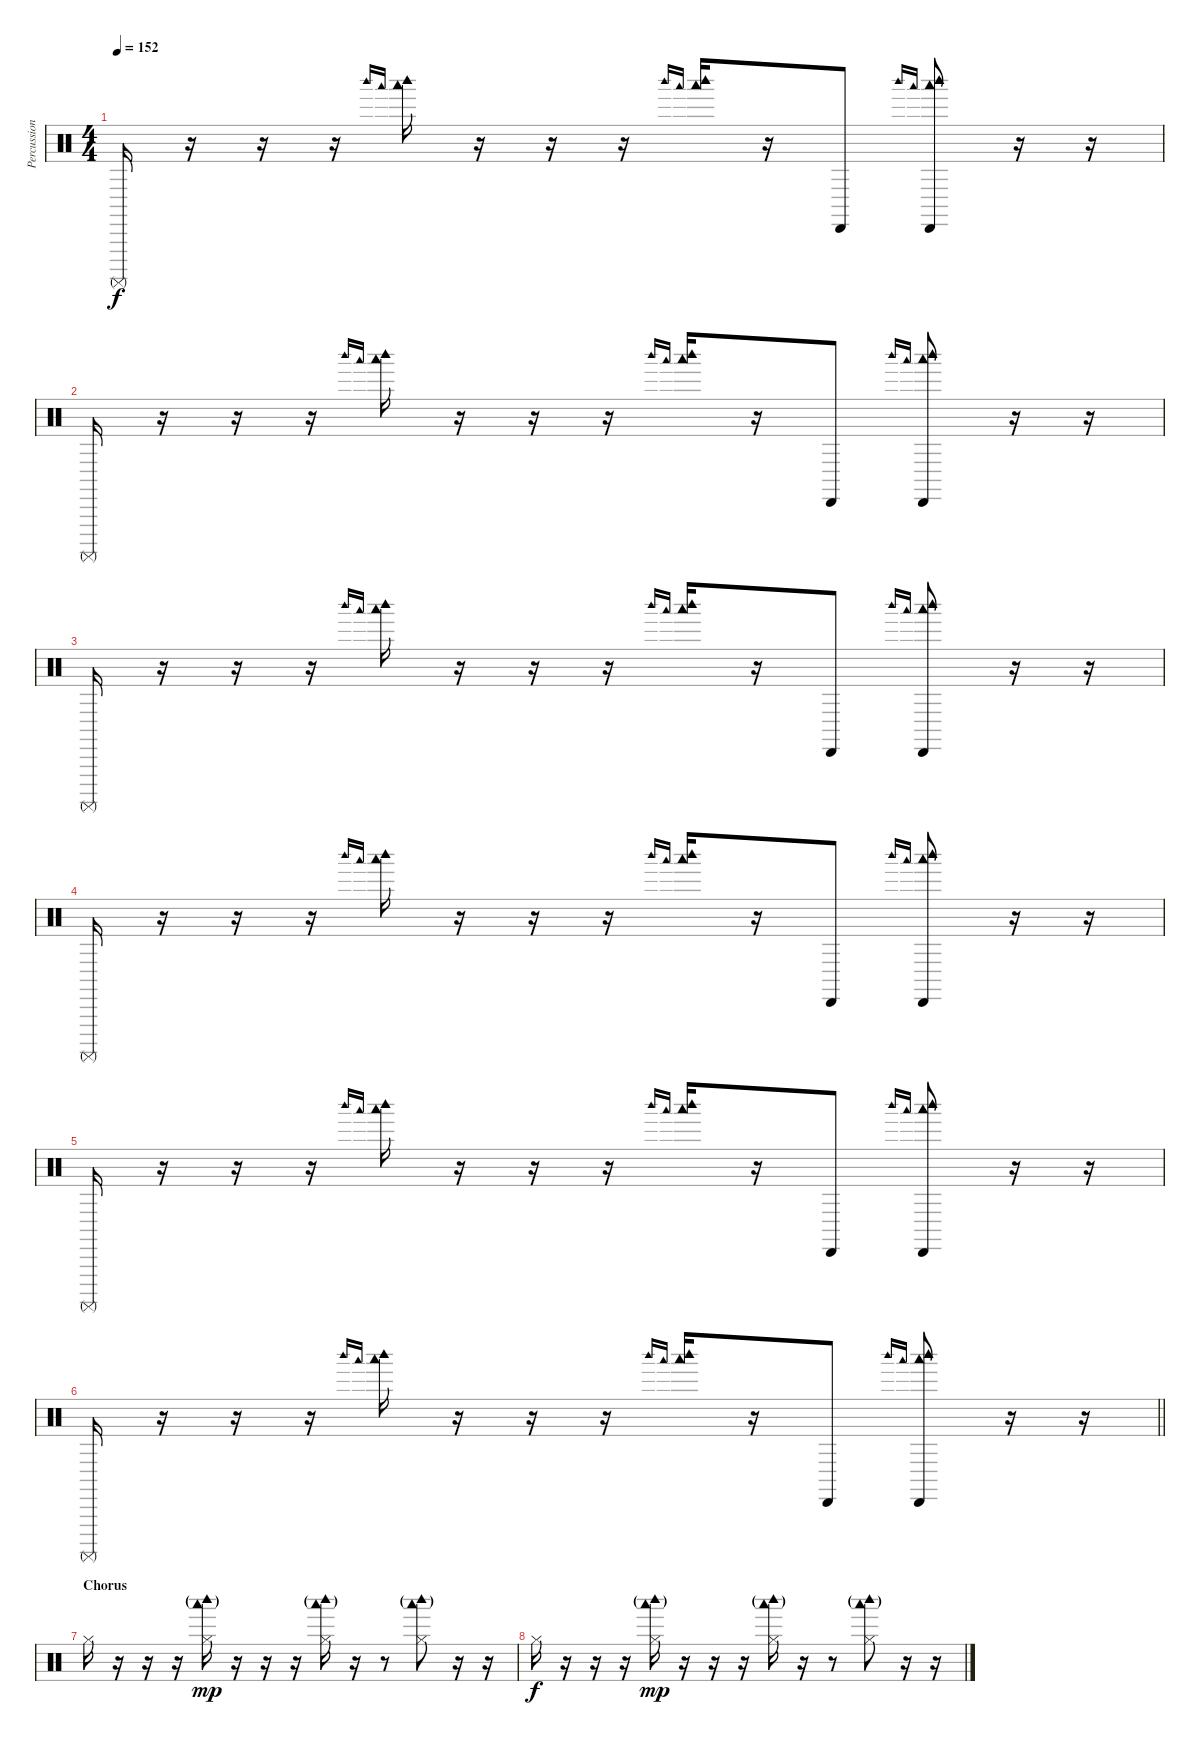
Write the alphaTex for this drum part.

\track ("Percussion" "Percussion") {instrument percussion}
\staff {score}
\articulation defaults
\ts (4 4)
\tempo 152
\clef neutral
\ks c "Surdo (mute)".16{dy f}
r.16 r.16 r.16 "Woodblock high (hit)".16{gr onbeat} "Woodblock low (hit)".16{gr onbeat} ("Woodblock high (hit)" "Woodblock low (hit)").16 r.16 r.16 r.16 "Woodblock high (hit)".16{gr onbeat} "Woodblock low (hit)".16{gr onbeat} ("Woodblock high (hit)" "Woodblock low (hit)").16 r.16 "Cabasa (hit)".8 "Woodblock high (hit)".16{gr onbeat} "Woodblock low (hit)".16{gr onbeat} ("Cabasa (hit)" "Woodblock high (hit)" "Woodblock low (hit)").8 r.16 r.16 |
"Surdo (mute)".16 r.16 r.16 r.16 "Woodblock high (hit)".16{gr onbeat} "Woodblock low (hit)".16{gr onbeat} ("Woodblock high (hit)" "Woodblock low (hit)").16 r.16 r.16 r.16 "Woodblock high (hit)".16{gr onbeat} "Woodblock low (hit)".16{gr onbeat} ("Woodblock high (hit)" "Woodblock low (hit)").16 r.16 "Cabasa (hit)".8 "Woodblock high (hit)".16{gr onbeat} "Woodblock low (hit)".16{gr onbeat} ("Cabasa (hit)" "Woodblock high (hit)" "Woodblock low (hit)").8 r.16 r.16 |
"Surdo (mute)".16 r.16 r.16 r.16 "Woodblock high (hit)".16{gr onbeat} "Woodblock low (hit)".16{gr onbeat} ("Woodblock high (hit)" "Woodblock low (hit)").16 r.16 r.16 r.16 "Woodblock high (hit)".16{gr onbeat} "Woodblock low (hit)".16{gr onbeat} ("Woodblock high (hit)" "Woodblock low (hit)").16 r.16 "Cabasa (hit)".8 "Woodblock high (hit)".16{gr onbeat} "Woodblock low (hit)".16{gr onbeat} ("Cabasa (hit)" "Woodblock high (hit)" "Woodblock low (hit)").8 r.16 r.16 |
"Surdo (mute)".16 r.16 r.16 r.16 "Woodblock high (hit)".16{gr onbeat} "Woodblock low (hit)".16{gr onbeat} ("Woodblock high (hit)" "Woodblock low (hit)").16 r.16 r.16 r.16 "Woodblock high (hit)".16{gr onbeat} "Woodblock low (hit)".16{gr onbeat} ("Woodblock high (hit)" "Woodblock low (hit)").16 r.16 "Cabasa (hit)".8 "Woodblock high (hit)".16{gr onbeat} "Woodblock low (hit)".16{gr onbeat} ("Cabasa (hit)" "Woodblock high (hit)" "Woodblock low (hit)").8 r.16 r.16 |
"Surdo (mute)".16 r.16 r.16 r.16 "Woodblock high (hit)".16{gr onbeat} "Woodblock low (hit)".16{gr onbeat} ("Woodblock high (hit)" "Woodblock low (hit)").16 r.16 r.16 r.16 "Woodblock high (hit)".16{gr onbeat} "Woodblock low (hit)".16{gr onbeat} ("Woodblock high (hit)" "Woodblock low (hit)").16 r.16 "Cabasa (hit)".8 "Woodblock high (hit)".16{gr onbeat} "Woodblock low (hit)".16{gr onbeat} ("Cabasa (hit)" "Woodblock high (hit)" "Woodblock low (hit)").8 r.16 r.16 |
\barLineRight lightlight "Surdo (mute)".16
r.16 r.16 r.16 "Woodblock high (hit)".16{gr onbeat} "Woodblock low (hit)".16{gr onbeat} ("Woodblock high (hit)" "Woodblock low (hit)").16 r.16 r.16 r.16 "Woodblock high (hit)".16{gr onbeat} "Woodblock low (hit)".16{gr onbeat} ("Woodblock high (hit)" "Woodblock low (hit)").16 r.16 "Cabasa (hit)".8 "Woodblock high (hit)".16{gr onbeat} "Woodblock low (hit)".16{gr onbeat} ("Cabasa (hit)" "Woodblock high (hit)" "Woodblock low (hit)").8 r.16 r.16 |
\section ("" "Chorus")
"Hi-Hat (closed)".16 r.16 r.16 r.16 ("Hi-Hat (closed)" "Woodblock high (hit)"{g} "Woodblock low (hit)"{g}).16{dy mp} r.16 r.16 r.16 ("Hi-Hat (closed)" "Woodblock high (hit)"{g} "Woodblock low (hit)"{g}).16 r.16 r.8 ("Hi-Hat (closed)" "Woodblock high (hit)"{g} "Woodblock low (hit)"{g}).8 r.16 r.16 |
"Hi-Hat (closed)".16{dy f} r.16 r.16 r.16 ("Hi-Hat (closed)" "Woodblock high (hit)"{g} "Woodblock low (hit)"{g}).16{dy mp} r.16 r.16 r.16 ("Hi-Hat (closed)" "Woodblock high (hit)"{g} "Woodblock low (hit)"{g}).16 r.16 r.8 ("Hi-Hat (closed)" "Woodblock high (hit)"{g} "Woodblock low (hit)"{g}).8 r.16 r.16
